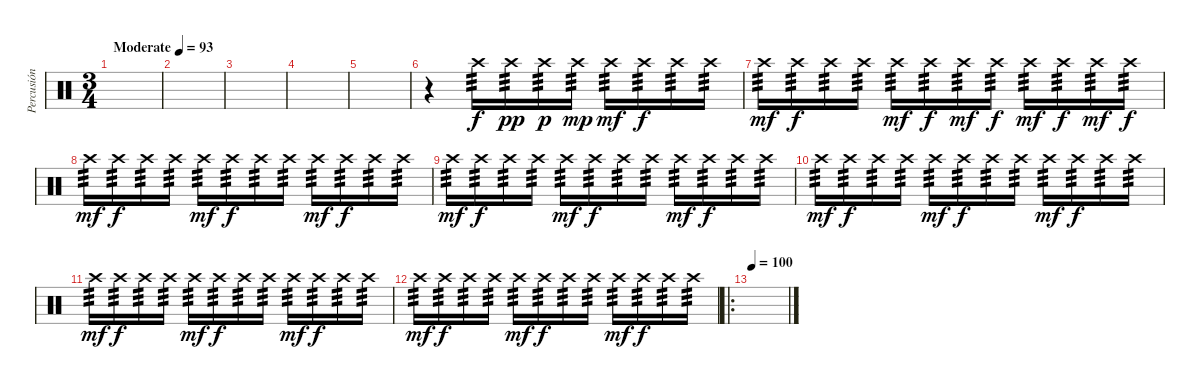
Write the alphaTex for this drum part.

\track ("Percusión" "Percusión") {instrument percussion}
\staff {score}
\articulation defaults
\ts (3 4)
\tempo (93 "Moderate")
\clef neutral
\ks c
|
|
|
|
|
r.4 "Crash high (hit)".16{tp 3} "Crash high (hit)".16{tp 3 dy pp} "Crash high (hit)".16{tp 3 dy p} "Crash high (hit)".16{tp 3 dy mp} "Crash high (hit)".16{tp 3 dy mf} "Crash high (hit)".16{tp 3 dy f} "Crash high (hit)".16{tp 3} "Crash high (hit)".16{tp 3} |
"Crash high (hit)".16{tp 3 dy mf} "Crash high (hit)".16{tp 3 dy f} "Crash high (hit)".16{tp 3} "Crash high (hit)".16{tp 3} "Crash high (hit)".16{tp 3 dy mf} "Crash high (hit)".16{tp 3 dy f} "Crash high (hit)".16{tp 3 dy mf} "Crash high (hit)".16{tp 3 dy f} "Crash high (hit)".16{tp 3 dy mf} "Crash high (hit)".16{tp 3 dy f} "Crash high (hit)".16{tp 3 dy mf} "Crash high (hit)".16{tp 3 dy f} |
"Crash high (hit)".16{tp 3 dy mf} "Crash high (hit)".16{tp 3 dy f} "Crash high (hit)".16{tp 3} "Crash high (hit)".16{tp 3} "Crash high (hit)".16{tp 3 dy mf} "Crash high (hit)".16{tp 3 dy f} "Crash high (hit)".16{tp 3} "Crash high (hit)".16{tp 3} "Crash high (hit)".16{tp 3 dy mf} "Crash high (hit)".16{tp 3 dy f} "Crash high (hit)".16{tp 3} "Crash high (hit)".16{tp 3} |
"Crash high (hit)".16{tp 3 dy mf} "Crash high (hit)".16{tp 3 dy f} "Crash high (hit)".16{tp 3} "Crash high (hit)".16{tp 3} "Crash high (hit)".16{tp 3 dy mf} "Crash high (hit)".16{tp 3 dy f} "Crash high (hit)".16{tp 3} "Crash high (hit)".16{tp 3} "Crash high (hit)".16{tp 3 dy mf} "Crash high (hit)".16{tp 3 dy f} "Crash high (hit)".16{tp 3} "Crash high (hit)".16{tp 3} |
"Crash high (hit)".16{tp 3 dy mf} "Crash high (hit)".16{tp 3 dy f} "Crash high (hit)".16{tp 3} "Crash high (hit)".16{tp 3} "Crash high (hit)".16{tp 3 dy mf} "Crash high (hit)".16{tp 3 dy f} "Crash high (hit)".16{tp 3} "Crash high (hit)".16{tp 3} "Crash high (hit)".16{tp 3 dy mf} "Crash high (hit)".16{tp 3 dy f} "Crash high (hit)".16{tp 3} "Crash high (hit)".16{tp 3} |
"Crash high (hit)".16{tp 3 dy mf} "Crash high (hit)".16{tp 3 dy f} "Crash high (hit)".16{tp 3} "Crash high (hit)".16{tp 3} "Crash high (hit)".16{tp 3 dy mf} "Crash high (hit)".16{tp 3 dy f} "Crash high (hit)".16{tp 3} "Crash high (hit)".16{tp 3} "Crash high (hit)".16{tp 3 dy mf} "Crash high (hit)".16{tp 3 dy f} "Crash high (hit)".16{tp 3} "Crash high (hit)".16{tp 3} |
"Crash high (hit)".16{tp 3 dy mf} "Crash high (hit)".16{tp 3 dy f} "Crash high (hit)".16{tp 3} "Crash high (hit)".16{tp 3} "Crash high (hit)".16{tp 3 dy mf} "Crash high (hit)".16{tp 3 dy f} "Crash high (hit)".16{tp 3} "Crash high (hit)".16{tp 3} "Crash high (hit)".16{tp 3 dy mf} "Crash high (hit)".16{tp 3 dy f} "Crash high (hit)".16{tp 3} "Crash high (hit)".16{tp 3} |
\ro
\tempo 100
